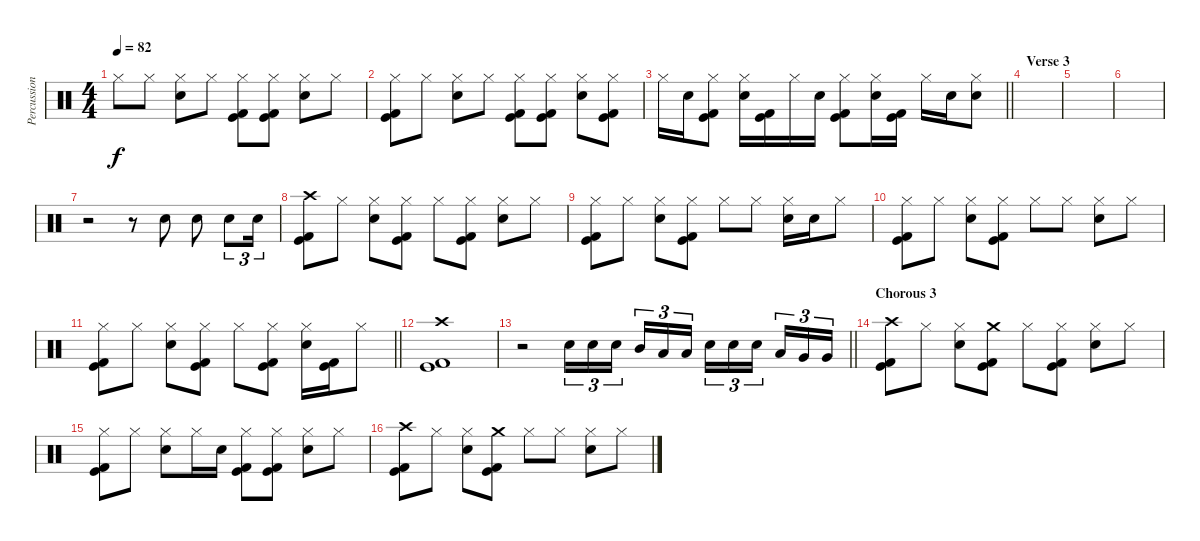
\track ("Percussion" "Percussion") {instrument percussion}
\staff {score}
\articulation defaults
\ts (4 4)
\tempo 82
\clef neutral
\ks c "Hi-Hat (closed)".8{dy f} "Hi-Hat (closed)".8
("Hi-Hat (closed)" "Electric Snare (hit)").8 "Hi-Hat (closed)".8 ("Hi-Hat (closed)" "Kick (hit)" "Kick (hit) 2").8 ("Hi-Hat (closed)" "Kick (hit)" "Kick (hit) 2").8 ("Hi-Hat (closed)" "Electric Snare (hit)").8 "Hi-Hat (closed)".8 |
("Hi-Hat (closed)" "Kick (hit)" "Kick (hit) 2").8 "Hi-Hat (closed)".8 ("Hi-Hat (closed)" "Electric Snare (hit)").8 "Hi-Hat (closed)".8 ("Hi-Hat (closed)" "Kick (hit)" "Kick (hit) 2").8 ("Hi-Hat (closed)" "Kick (hit)" "Kick (hit) 2").8 ("Hi-Hat (closed)" "Electric Snare (hit)").8 ("Hi-Hat (closed)" "Kick (hit)" "Kick (hit) 2").8 |
\barLineRight lightlight "Hi-Hat (closed)".16 "Electric Snare (hit)".16
("Hi-Hat (closed)" "Kick (hit)" "Kick (hit) 2").8 ("Hi-Hat (closed)" "Electric Snare (hit)").16 ("Kick (hit)" "Kick (hit) 2").16 "Hi-Hat (closed)".16 "Electric Snare (hit)".16 ("Hi-Hat (closed)" "Kick (hit)" "Kick (hit) 2").8 ("Hi-Hat (closed)" "Electric Snare (hit)").16 ("Kick (hit)" "Kick (hit) 2").16 "Hi-Hat (closed)".16 "Electric Snare (hit)".16 ("Hi-Hat (closed)" "Electric Snare (hit)").8 |
\section ("" "Verse 3")
|
|
|
r.2 r.8 "Electric Snare (hit)".8 "Electric Snare (hit)".8 "Electric Snare (hit)".8{tu (3 2)} "Electric Snare (hit)".16{tu (3 2)} |
("Crash high (hit)" "Kick (hit)" "Kick (hit) 2").8 "Hi-Hat (closed)".8 ("Hi-Hat (closed)" "Electric Snare (hit)").8 ("Hi-Hat (closed)" "Kick (hit)" "Kick (hit) 2").8 "Hi-Hat (closed)".8 ("Hi-Hat (closed)" "Kick (hit)" "Kick (hit) 2").8 ("Hi-Hat (closed)" "Electric Snare (hit)").8 "Hi-Hat (closed)".8 |
("Hi-Hat (closed)" "Kick (hit)" "Kick (hit) 2").8 "Hi-Hat (closed)".8 ("Hi-Hat (closed)" "Electric Snare (hit)").8 ("Hi-Hat (closed)" "Kick (hit)" "Kick (hit) 2").8 "Hi-Hat (closed)".8 "Hi-Hat (closed)".8 ("Hi-Hat (closed)" "Electric Snare (hit)").16 "Electric Snare (hit)".16 "Hi-Hat (closed)".8 |
("Hi-Hat (closed)" "Kick (hit)" "Kick (hit) 2").8 "Hi-Hat (closed)".8 ("Hi-Hat (closed)" "Electric Snare (hit)").8 ("Hi-Hat (closed)" "Kick (hit)" "Kick (hit) 2").8 "Hi-Hat (closed)".8 "Hi-Hat (closed)".8 ("Hi-Hat (closed)" "Electric Snare (hit)").8 "Hi-Hat (closed)".8 |
\barLineRight lightlight
("Hi-Hat (closed)" "Kick (hit)" "Kick (hit) 2").8 "Hi-Hat (closed)".8 ("Hi-Hat (closed)" "Electric Snare (hit)").8 ("Hi-Hat (closed)" "Kick (hit)" "Kick (hit) 2").8 "Hi-Hat (closed)".8 ("Hi-Hat (closed)" "Kick (hit)" "Kick (hit) 2").8 ("Hi-Hat (closed)" "Electric Snare (hit)").16 ("Kick (hit)" "Kick (hit) 2").16 "Hi-Hat (closed)".8 |
\section ("" "")
("Crash high (hit)" "Kick (hit)" "Kick (hit) 2").1 |
\barLineRight lightlight
r.2 "Electric Snare (hit)".16{tu (3 2)} "Electric Snare (hit)".16{tu (3 2)} "Electric Snare (hit)".16{tu (3 2) beam splitsecondary} "Mid Tom (hit)".16{tu (3 2)} "Low Tom (hit)".16{tu (3 2)} "Low Tom (hit)".16{tu (3 2)} "Electric Snare (hit)".16{tu (3 2)} "Electric Snare (hit)".16{tu (3 2)} "Electric Snare (hit)".16{tu (3 2) beam splitsecondary} "Low Tom (hit)".16{tu (3 2)} "Very Low Tom (hit)".16{tu (3 2)} "Very Low Tom (hit)".16{tu (3 2)} |
\section ("" "Chorous 3")
("Crash high (hit)" "Kick (hit)" "Kick (hit) 2").8 "Hi-Hat (closed)".8 ("Hi-Hat (closed)" "Electric Snare (hit)").8 ("Crash medium (hit)" "Kick (hit)" "Kick (hit) 2").8 "Hi-Hat (closed)".8 ("Hi-Hat (closed)" "Kick (hit)" "Kick (hit) 2").8 ("Hi-Hat (closed)" "Electric Snare (hit)").8 "Hi-Hat (closed)".8 |
("Hi-Hat (closed)" "Kick (hit)" "Kick (hit) 2").8 "Hi-Hat (closed)".8 ("Hi-Hat (closed)" "Electric Snare (hit)").8 "Hi-Hat (closed)".16 "Electric Snare (hit)".16 ("Hi-Hat (closed)" "Kick (hit)" "Kick (hit) 2").8 ("Hi-Hat (closed)" "Kick (hit)" "Kick (hit) 2").8 ("Hi-Hat (closed)" "Electric Snare (hit)").8 "Hi-Hat (closed)".8 |
("Crash high (hit)" "Kick (hit)" "Kick (hit) 2").8 "Hi-Hat (closed)".8 ("Hi-Hat (closed)" "Electric Snare (hit)").8 ("Crash medium (hit)" "Kick (hit)" "Kick (hit) 2").8 "Hi-Hat (closed)".8 "Hi-Hat (closed)".8 ("Hi-Hat (closed)" "Electric Snare (hit)").8 "Hi-Hat (closed)".8
